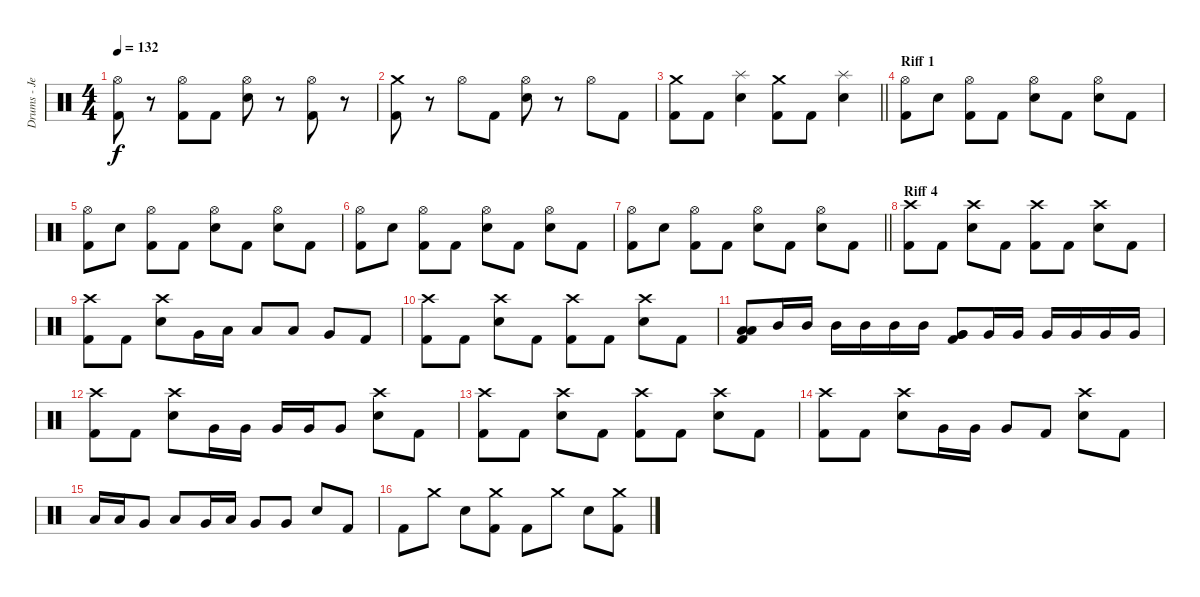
\track ("Drums - Jess Margera" "Drums - Je") {instrument percussion}
\staff {score}
\articulation defaults
\ts (4 4)
\tempo 132
\clef neutral
\ks c
("Hi-Hat (open)" "Kick (hit) 2").8{dy f} r.8 ("Hi-Hat (open)" "Kick (hit) 2").8 "Kick (hit) 2".8 ("Hi-Hat (open)" "Electric Snare (hit)").8 r.8 ("Hi-Hat (open)" "Kick (hit) 2").8 r.8 |
("Crash medium (hit)" "Kick (hit) 2").8 r.8 "Hi-Hat (open)".8 "Kick (hit) 2".8 ("Hi-Hat (open)" "Electric Snare (hit)").8 r.8 "Hi-Hat (open)".8 "Kick (hit) 2".8 |
\barLineRight lightlight
("Crash medium (hit)" "Kick (hit) 2").8 "Kick (hit) 2".8 ("Splash (hit)" "Electric Snare (hit)").4 ("Crash medium (hit)" "Kick (hit) 2").8 "Kick (hit) 2".8 ("Splash (hit)" "Electric Snare (hit)").4 |
\section ("" "Riff 1")
("Hi-Hat (open)" "Kick (hit) 2").8 "Electric Snare (hit)".8 ("Hi-Hat (open)" "Kick (hit) 2").8 "Kick (hit) 2".8 ("Hi-Hat (open)" "Electric Snare (hit)").8 "Kick (hit) 2".8 ("Hi-Hat (open)" "Electric Snare (hit)").8 "Kick (hit) 2".8 |
("Hi-Hat (open)" "Kick (hit) 2").8 "Electric Snare (hit)".8 ("Hi-Hat (open)" "Kick (hit) 2").8 "Kick (hit) 2".8 ("Hi-Hat (open)" "Electric Snare (hit)").8 "Kick (hit) 2".8 ("Hi-Hat (open)" "Electric Snare (hit)").8 "Kick (hit) 2".8 |
("Hi-Hat (open)" "Kick (hit) 2").8 "Electric Snare (hit)".8 ("Hi-Hat (open)" "Kick (hit) 2").8 "Kick (hit) 2".8 ("Hi-Hat (open)" "Electric Snare (hit)").8 "Kick (hit) 2".8 ("Hi-Hat (open)" "Electric Snare (hit)").8 "Kick (hit) 2".8 |
\barLineRight lightlight
("Hi-Hat (open)" "Kick (hit) 2").8 "Electric Snare (hit)".8 ("Hi-Hat (open)" "Kick (hit) 2").8 "Kick (hit) 2".8 ("Hi-Hat (open)" "Electric Snare (hit)").8 "Kick (hit) 2".8 ("Hi-Hat (open)" "Electric Snare (hit)").8 "Kick (hit) 2".8 |
\section ("" "Riff 4")
("Crash high (hit)" "Kick (hit) 2").8 "Kick (hit) 2".8 ("Crash high (hit)" "Electric Snare (hit)").8 "Kick (hit) 2".8 ("Crash high (hit)" "Kick (hit) 2").8 "Kick (hit) 2".8 ("Crash high (hit)" "Electric Snare (hit)").8 "Kick (hit) 2".8 |
("Crash high (hit)" "Kick (hit) 2").8 "Kick (hit) 2".8 ("Crash high (hit)" "Electric Snare (hit)").8 "Very Low Tom (hit)".16 "Low Floor Tom (hit)".16 "Low Floor Tom (hit)".8 "Low Floor Tom (hit)".8 "Very Low Tom (hit)".8 "Kick (hit) 2".8 |
("Crash high (hit)" "Kick (hit) 2").8 "Kick (hit) 2".8 ("Crash high (hit)" "Electric Snare (hit)").8 "Kick (hit) 2".8 ("Crash high (hit)" "Kick (hit) 2").8 "Kick (hit) 2".8 ("Crash high (hit)" "Electric Snare (hit)").8 "Kick (hit) 2".8 |
("Low Tom (hit)" "Low Tom (hit)" "Kick (hit) 2").8 "Mid Tom (hit)".16 "Mid Tom (hit)".16 "Mid Tom (hit)".16 "Mid Tom (hit)".16 "Mid Tom (hit)".16 "Mid Tom (hit)".16 ("Very Low Tom (hit)" "Very Low Tom (hit)" "Kick (hit) 2").8 "Very Low Tom (hit)".16 "Very Low Tom (hit)".16 "Very Low Tom (hit)".16 "Very Low Tom (hit)".16 "Very Low Tom (hit)".16 "Very Low Tom (hit)".16 |
("Crash high (hit)" "Kick (hit) 2").8 "Kick (hit) 2".8 ("Crash high (hit)" "Electric Snare (hit)").8 "Very Low Tom (hit)".16 "Very Low Tom (hit)".16 "Very Low Tom (hit)".16 "Very Low Tom (hit)".16 "Very Low Tom (hit)".8 ("Crash high (hit)" "Electric Snare (hit)").8 "Kick (hit) 2".8 |
("Crash high (hit)" "Kick (hit) 2").8 "Kick (hit) 2".8 ("Crash high (hit)" "Electric Snare (hit)").8 "Kick (hit) 2".8 ("Crash high (hit)" "Kick (hit) 2").8 "Kick (hit) 2".8 ("Crash high (hit)" "Electric Snare (hit)").8 "Kick (hit) 2".8 |
("Crash high (hit)" "Kick (hit) 2").8 "Kick (hit) 2".8 ("Crash high (hit)" "Electric Snare (hit)").8 "Very Low Tom (hit)".16 "Very Low Tom (hit)".16 "Very Low Tom (hit)".8 "Kick (hit) 2".8 ("Crash high (hit)" "Electric Snare (hit)").8 "Kick (hit) 2".8 |
"Low Tom (hit)".16 "Low Tom (hit)".16 "Very Low Tom (hit)".8 "Low Tom (hit)".8 "Very Low Tom (hit)".16 "Low Floor Tom (hit)".16 "Very Low Tom (hit)".8 "Very Low Tom (hit)".8 "Electric Snare (hit)".8 "Kick (hit) 2".8 |
"Kick (hit) 2".8 "Crash medium (hit)".8 "Electric Snare (hit)".8 ("Crash medium (hit)" "Kick (hit) 2").8 "Kick (hit) 2".8 "Crash medium (hit)".8 "Electric Snare (hit)".8 ("Crash medium (hit)" "Kick (hit) 2").8
